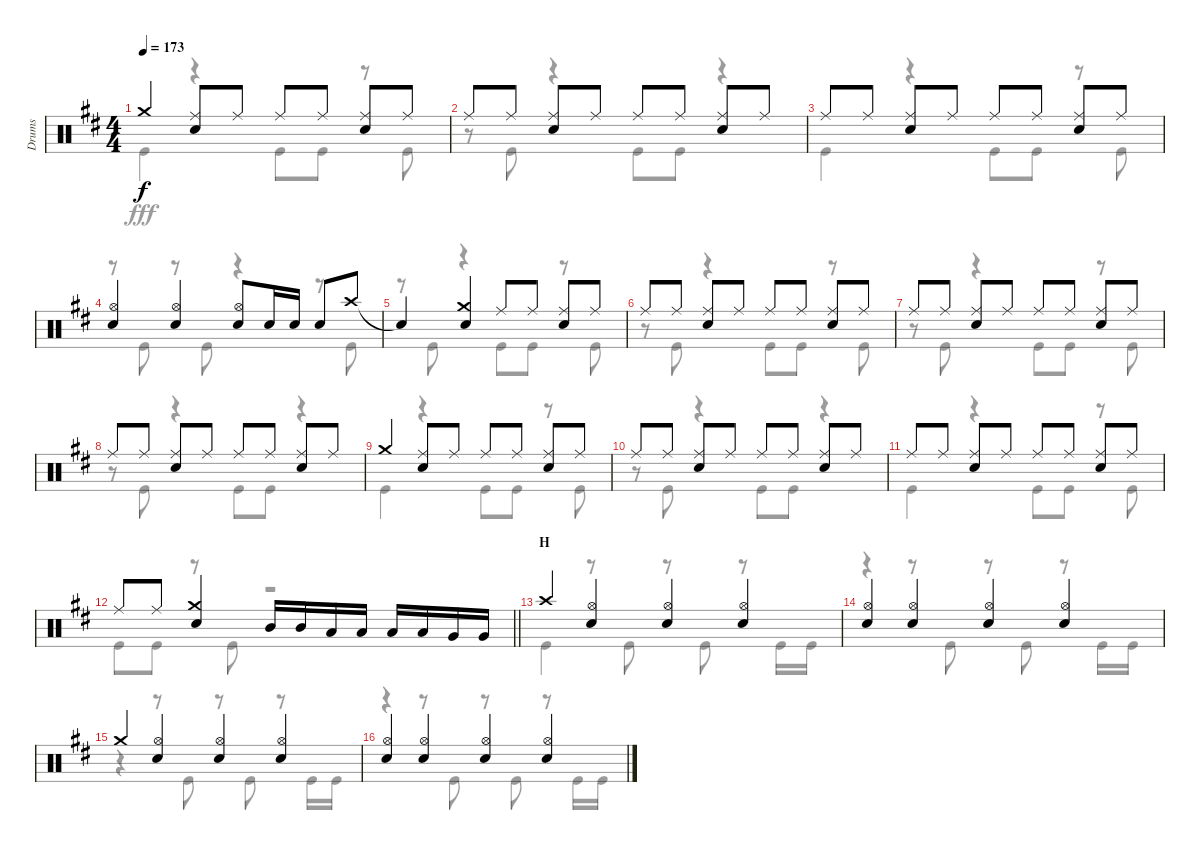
\track ("Drums" "Drums") {instrument percussion}
\staff {score}
\articulation defaults
\voice
\ts (4 4)
\tempo 173
\clef neutral
\ks d "Crash medium (hit)".4{dy f}
("Ride (middle)" "Snare (hit) 2").8 "Ride (middle)".8 "Ride (middle)".8 "Ride (middle)".8 ("Ride (middle)" "Snare (hit) 2").8 "Ride (middle)".8 |
"Ride (middle)".8 "Ride (middle)".8 ("Ride (middle)" "Snare (hit) 2").8 "Ride (middle)".8 "Ride (middle)".8 "Ride (middle)".8 ("Ride (middle)" "Snare (hit) 2").8 "Ride (middle)".8 |
"Ride (middle)".8 "Ride (middle)".8 ("Ride (middle)" "Snare (hit) 2").8 "Ride (middle)".8 "Ride (middle)".8 "Ride (middle)".8 ("Ride (middle)" "Snare (hit) 2").8 "Ride (middle)".8 |
("Hi-Hat (open)" "Snare (hit) 2").4 ("Hi-Hat (open)" "Snare (hit) 2").4 ("Hi-Hat (open)" "Snare (hit) 2").8 "Snare (hit) 2".16 "Snare (hit) 2".16 "Snare (hit) 2".8 "Crash high (hit)".8 |
"Snare (hit)"{t}.4 ("Crash medium (hit)" "Snare (hit) 2").4 "Ride (middle)".8 "Ride (middle)".8 ("Ride (middle)" "Snare (hit) 2").8 "Ride (middle)".8 |
"Ride (middle)".8 "Ride (middle)".8 ("Ride (middle)" "Snare (hit) 2").8 "Ride (middle)".8 "Ride (middle)".8 "Ride (middle)".8 ("Ride (middle)" "Snare (hit) 2").8 "Ride (middle)".8 |
"Ride (middle)".8 "Ride (middle)".8 ("Ride (middle)" "Snare (hit) 2").8 "Ride (middle)".8 "Ride (middle)".8 "Ride (middle)".8 ("Ride (middle)" "Snare (hit) 2").8 "Ride (middle)".8 |
"Ride (middle)".8 "Ride (middle)".8 ("Ride (middle)" "Snare (hit) 2").8 "Ride (middle)".8 "Ride (middle)".8 "Ride (middle)".8 ("Ride (middle)" "Snare (hit) 2").8 "Ride (middle)".8 |
"Crash medium (hit)".4 ("Ride (middle)" "Snare (hit) 2").8 "Ride (middle)".8 "Ride (middle)".8 "Ride (middle)".8 ("Ride (middle)" "Snare (hit) 2").8 "Ride (middle)".8 |
"Ride (middle)".8 "Ride (middle)".8 ("Ride (middle)" "Snare (hit) 2").8 "Ride (middle)".8 "Ride (middle)".8 "Ride (middle)".8 ("Ride (middle)" "Snare (hit) 2").8 "Ride (middle)".8 |
"Ride (middle)".8 "Ride (middle)".8 ("Ride (middle)" "Snare (hit) 2").8 "Ride (middle)".8 "Ride (middle)".8 "Ride (middle)".8 ("Ride (middle)" "Snare (hit) 2").8 "Ride (middle)".8 |
\barLineRight lightlight "Ride (middle)".8 "Ride (middle)".8
("Crash medium (hit)" "Snare (hit) 2").4 "Mid Tom (hit)".16 "Mid Tom (hit)".16 "Low Tom (hit)".16 "Low Tom (hit)".16 "Low Tom (hit)".16 "Low Tom (hit)".16 "Very Low Tom (hit)".16 "Very Low Tom (hit)".16 |
\section ("" "H")
"Crash high (hit)".4 ("Hi-Hat (open)" "Snare (hit) 2").4 ("Hi-Hat (open)" "Snare (hit) 2").4 ("Hi-Hat (open)" "Snare (hit) 2").4 |
("Hi-Hat (open)" "Snare (hit) 2").4 ("Hi-Hat (open)" "Snare (hit) 2").4 ("Hi-Hat (open)" "Snare (hit) 2").4 ("Hi-Hat (open)" "Snare (hit) 2").4 |
"Crash medium (hit)".4 ("Hi-Hat (open)" "Snare (hit) 2").4 ("Hi-Hat (open)" "Snare (hit) 2").4 ("Hi-Hat (open)" "Snare (hit) 2").4 |
("Hi-Hat (open)" "Snare (hit) 2").4 ("Hi-Hat (open)" "Snare (hit) 2").4 ("Hi-Hat (open)" "Snare (hit) 2").4 ("Hi-Hat (open)" "Snare (hit) 2").4
\voice
\clef neutral
\ottava regular
\simile none
\ks d "Kick (hit)".4{dy fff}
r.4 "Kick (hit)".8 "Kick (hit)".8 r.8 "Kick (hit)".8 |
r.8 "Kick (hit)".8 r.4 "Kick (hit)".8 "Kick (hit)".8 r.4 |
"Kick (hit)".4 r.4 "Kick (hit)".8 "Kick (hit)".8 r.8 "Kick (hit)".8 |
r.8 "Kick (hit)".8 r.8 "Kick (hit)".8 r.4 r.8 "Kick (hit)".8 |
r.8 "Kick (hit)".8 r.4 "Kick (hit)".8 "Kick (hit)".8 r.8 "Kick (hit)".8 |
r.8 "Kick (hit)".8 r.4 "Kick (hit)".8 "Kick (hit)".8 r.8 "Kick (hit)".8 |
r.8 "Kick (hit)".8 r.4 "Kick (hit)".8 "Kick (hit)".8 r.8 "Kick (hit)".8 |
r.8 "Kick (hit)".8 r.4 "Kick (hit)".8 "Kick (hit)".8 r.4 |
"Kick (hit)".4 r.4 "Kick (hit)".8 "Kick (hit)".8 r.8 "Kick (hit)".8 |
r.8 "Kick (hit)".8 r.4 "Kick (hit)".8 "Kick (hit)".8 r.4 |
"Kick (hit)".4 r.4 "Kick (hit)".8 "Kick (hit)".8 r.8 "Kick (hit)".8 |
\barLineRight lightlight "Kick (hit)".8 "Kick (hit)".8
r.8 "Kick (hit)".8 r.2 |
"Kick (hit)".4 r.8 "Kick (hit)".8 r.8 "Kick (hit)".8 r.8 "Kick (hit)".16 "Kick (hit)".16 |
r.4 r.8 "Kick (hit)".8 r.8 "Kick (hit)".8 r.8 "Kick (hit)".16 "Kick (hit)".16 |
r.4 r.8 "Kick (hit)".8 r.8 "Kick (hit)".8 r.8 "Kick (hit)".16 "Kick (hit)".16 |
r.4 r.8 "Kick (hit)".8 r.8 "Kick (hit)".8 r.8 "Kick (hit)".16 "Kick (hit)".16
